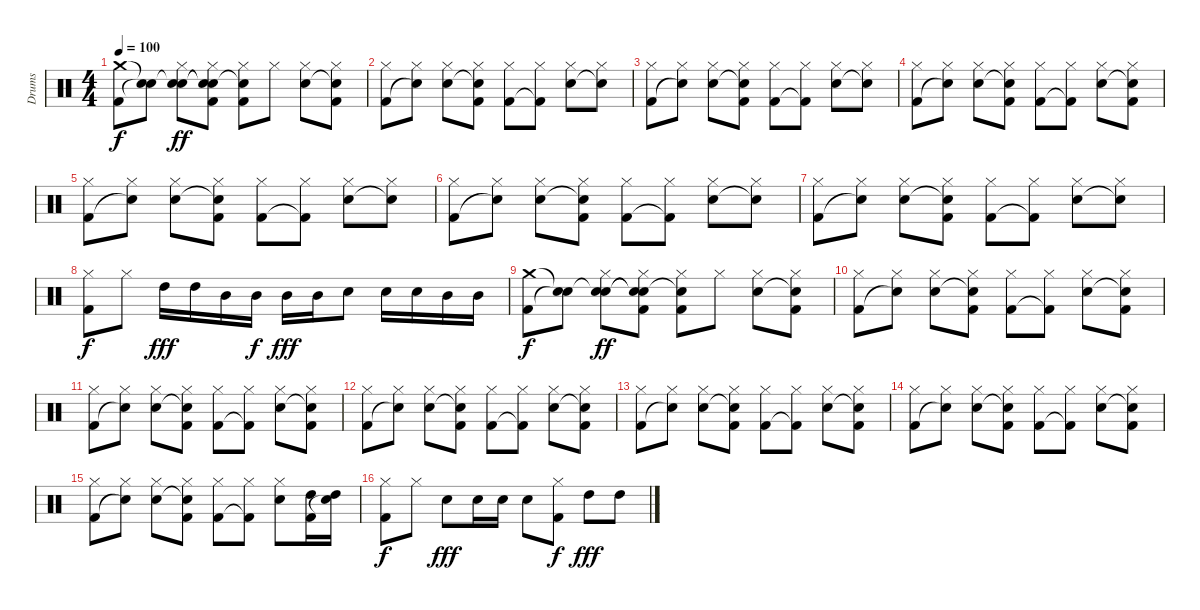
\track ("Drums" "Drums") {instrument percussion}
\staff {score}
\articulation defaults
\ts (4 4)
\tempo 100
\clef neutral
\ks c
("Crash medium (hit)" "Kick (hit) 2").8{dy f} ("Snare (hit)"{t} "Snare (hit)"{t}).8 ("Snare (hit)"{t} "Hi-Hat (closed)" "Snare (hit) 2").8{dy ff} ("Snare (hit)"{t} "Hi-Hat (closed)" "Snare (hit)"{t} "Kick (hit) 2").8 ("Snare (hit)"{t} "Hi-Hat (closed)" "Kick (hit) 2").8 "Hi-Hat (closed)".8 ("Hi-Hat (closed)" "Snare (hit) 2").8 ("Hi-Hat (closed)" "Snare (hit)"{t} "Kick (hit) 2").8 |
("Hi-Hat (closed)" "Kick (hit) 2").8 ("Hi-Hat (closed)" "Snare (hit)"{t}).8 ("Hi-Hat (closed)" "Snare (hit) 2").8 ("Hi-Hat (closed)" "Snare (hit)"{t} "Kick (hit) 2").8 ("Hi-Hat (closed)" "Kick (hit) 2").8 ("Hi-Hat (closed)" "Kick (hit) 2"{t}).8 ("Hi-Hat (closed)" "Snare (hit) 2").8 ("Hi-Hat (closed)" "Snare (hit)"{t}).8 |
("Hi-Hat (closed)" "Kick (hit) 2").8 ("Hi-Hat (closed)" "Snare (hit)"{t}).8 ("Hi-Hat (closed)" "Snare (hit) 2").8 ("Hi-Hat (closed)" "Snare (hit)"{t} "Kick (hit) 2").8 ("Hi-Hat (closed)" "Kick (hit) 2").8 ("Hi-Hat (closed)" "Kick (hit) 2"{t}).8 ("Hi-Hat (closed)" "Snare (hit) 2").8 ("Hi-Hat (closed)" "Snare (hit)"{t}).8 |
("Hi-Hat (closed)" "Kick (hit) 2").8 ("Hi-Hat (closed)" "Snare (hit)"{t}).8 ("Hi-Hat (closed)" "Snare (hit) 2").8 ("Hi-Hat (closed)" "Snare (hit)"{t} "Kick (hit) 2").8 ("Hi-Hat (closed)" "Kick (hit) 2").8 ("Hi-Hat (closed)" "Kick (hit) 2"{t}).8 ("Hi-Hat (closed)" "Snare (hit) 2").8 ("Hi-Hat (closed)" "Snare (hit)"{t} "Kick (hit) 2").8 |
("Hi-Hat (closed)" "Kick (hit) 2").8 ("Hi-Hat (closed)" "Snare (hit)"{t}).8 ("Hi-Hat (closed)" "Snare (hit) 2").8 ("Hi-Hat (closed)" "Snare (hit)"{t} "Kick (hit) 2").8 ("Hi-Hat (closed)" "Kick (hit) 2").8 ("Hi-Hat (closed)" "Kick (hit) 2"{t}).8 ("Hi-Hat (closed)" "Snare (hit) 2").8 ("Hi-Hat (closed)" "Snare (hit)"{t}).8 |
("Hi-Hat (closed)" "Kick (hit) 2").8 ("Hi-Hat (closed)" "Snare (hit)"{t}).8 ("Hi-Hat (closed)" "Snare (hit) 2").8 ("Hi-Hat (closed)" "Snare (hit)"{t} "Kick (hit) 2").8 ("Hi-Hat (closed)" "Kick (hit) 2").8 ("Hi-Hat (closed)" "Kick (hit) 2"{t}).8 ("Hi-Hat (closed)" "Snare (hit) 2").8 ("Hi-Hat (closed)" "Snare (hit)"{t}).8 |
("Hi-Hat (closed)" "Kick (hit) 2").8 ("Hi-Hat (closed)" "Snare (hit)"{t}).8 ("Hi-Hat (closed)" "Snare (hit) 2").8 ("Hi-Hat (closed)" "Snare (hit)"{t} "Kick (hit) 2").8 ("Hi-Hat (closed)" "Kick (hit) 2").8 ("Hi-Hat (closed)" "Kick (hit) 2"{t}).8 ("Hi-Hat (closed)" "Snare (hit) 2").8 ("Hi-Hat (closed)" "Snare (hit)"{t}).8 |
("Hi-Hat (closed)" "Kick (hit) 2").8{dy f} "Hi-Hat (closed)".8 "High Tom (hit)".16{dy fff} "High Tom (hit)".16 "Mid Tom (hit)".16 "Mid Tom (hit)".16{dy f} "Mid Tom (hit)".16{dy fff} "Mid Tom (hit)".16 "Snare (hit) 2".8 "Snare (hit) 2".16 "Snare (hit) 2".16 "Mid Tom (hit)".16 "Mid Tom (hit)".16 |
("Crash medium (hit)" "Kick (hit) 2").8{dy f} ("Snare (hit)"{t} "Snare (hit)"{t}).8 ("Snare (hit)"{t} "Hi-Hat (closed)" "Snare (hit) 2").8{dy ff} ("Snare (hit)"{t} "Hi-Hat (closed)" "Snare (hit)"{t} "Kick (hit) 2").8 ("Snare (hit)"{t} "Hi-Hat (closed)" "Kick (hit) 2").8 "Hi-Hat (closed)".8 ("Hi-Hat (closed)" "Snare (hit) 2").8 ("Hi-Hat (closed)" "Snare (hit)"{t} "Kick (hit) 2").8 |
("Hi-Hat (closed)" "Kick (hit) 2").8 ("Hi-Hat (closed)" "Snare (hit)"{t}).8 ("Hi-Hat (closed)" "Snare (hit) 2").8 ("Hi-Hat (closed)" "Snare (hit)"{t} "Kick (hit) 2").8 ("Hi-Hat (closed)" "Kick (hit) 2").8 ("Hi-Hat (closed)" "Kick (hit) 2"{t}).8 ("Hi-Hat (closed)" "Snare (hit) 2").8 ("Hi-Hat (closed)" "Snare (hit)"{t} "Kick (hit) 2").8 |
("Hi-Hat (closed)" "Kick (hit) 2").8 ("Hi-Hat (closed)" "Snare (hit)"{t}).8 ("Hi-Hat (closed)" "Snare (hit) 2").8 ("Hi-Hat (closed)" "Snare (hit)"{t} "Kick (hit) 2").8 ("Hi-Hat (closed)" "Kick (hit) 2").8 ("Hi-Hat (closed)" "Kick (hit) 2"{t}).8 ("Hi-Hat (closed)" "Snare (hit) 2").8 ("Hi-Hat (closed)" "Snare (hit)"{t} "Kick (hit) 2").8 |
("Hi-Hat (closed)" "Kick (hit) 2").8 ("Hi-Hat (closed)" "Snare (hit)"{t}).8 ("Hi-Hat (closed)" "Snare (hit) 2").8 ("Hi-Hat (closed)" "Snare (hit)"{t} "Kick (hit) 2").8 ("Hi-Hat (closed)" "Kick (hit) 2").8 ("Hi-Hat (closed)" "Kick (hit) 2"{t}).8 ("Hi-Hat (closed)" "Snare (hit) 2").8 ("Hi-Hat (closed)" "Snare (hit)"{t} "Kick (hit) 2").8 |
("Hi-Hat (closed)" "Kick (hit) 2").8 ("Hi-Hat (closed)" "Snare (hit)"{t}).8 ("Hi-Hat (closed)" "Snare (hit) 2").8 ("Hi-Hat (closed)" "Snare (hit)"{t} "Kick (hit) 2").8 ("Hi-Hat (closed)" "Kick (hit) 2").8 ("Hi-Hat (closed)" "Kick (hit) 2"{t}).8 ("Hi-Hat (closed)" "Snare (hit) 2").8 ("Hi-Hat (closed)" "Snare (hit)"{t} "Kick (hit) 2").8 |
("Hi-Hat (closed)" "Kick (hit) 2").8 ("Hi-Hat (closed)" "Snare (hit)"{t}).8 ("Hi-Hat (closed)" "Snare (hit) 2").8 ("Hi-Hat (closed)" "Snare (hit)"{t} "Kick (hit) 2").8 ("Hi-Hat (closed)" "Kick (hit) 2").8 ("Hi-Hat (closed)" "Kick (hit) 2"{t}).8 ("Hi-Hat (closed)" "Snare (hit) 2").8 ("Hi-Hat (closed)" "Snare (hit)"{t} "Kick (hit) 2").8 |
("Hi-Hat (closed)" "Kick (hit) 2").8 ("Hi-Hat (closed)" "Snare (hit)"{t}).8 ("Hi-Hat (closed)" "Snare (hit) 2").8 ("Hi-Hat (closed)" "Snare (hit)"{t} "Kick (hit) 2").8 ("Hi-Hat (closed)" "Kick (hit) 2").8 ("Hi-Hat (closed)" "Kick (hit) 2"{t}).8 ("Hi-Hat (closed)" "Snare (hit) 2").8 ("High Tom (hit)" "Kick (hit) 2").16 ("High Tom (hit)" "Snare (hit)"{t}).16 |
("Hi-Hat (closed)" "Kick (hit) 2").8{dy f} "Hi-Hat (closed)".8 "Snare (hit) 2".8{dy fff} "Snare (hit) 2".16 "Snare (hit) 2".16 "Snare (hit) 2".8 ("Hi-Hat (closed)" "Kick (hit) 2").8{dy f} "High Tom (hit)".8{dy fff} "High Tom (hit)".8
